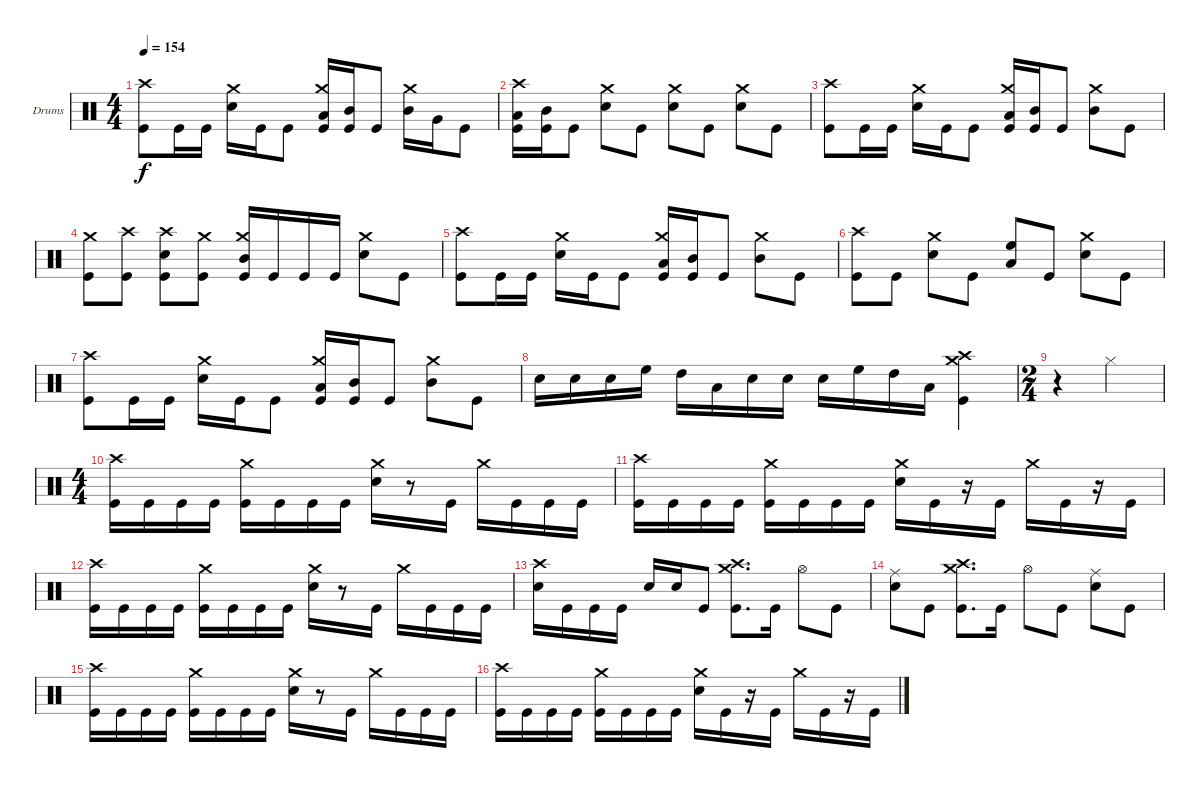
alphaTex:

\defaultSystemsLayout 4
\bracketExtendMode groupsimilarinstruments
\firstSystemTrackNameOrientation horizontal
\otherSystemsTrackNameOrientation horizontal
\track ("Moe Carlson" "Drums") {instrument percussion}
\staff {score}
\articulation defaults
\ts (4 4)
\tempo 154
\clef neutral
\ks c
("Crash high (hit)" "Kick (hit)").8{dy f} "Kick (hit)".16 "Kick (hit)".16 ("Snare (hit) 2" "Crash medium (hit)").16 "Kick (hit)".16 "Kick (hit)".8 ("Kick (hit)" "Crash medium (hit)" "Low Tom (hit)").16 ("Kick (hit)" "Mid Tom (hit)").16 "Kick (hit)".8 ("Crash medium (hit)" "Mid Tom (hit)").16 "Very Low Tom (hit)".16 "Kick (hit)".8 |
("Crash high (hit)" "Kick (hit)" "Low Tom (hit)").16 ("Kick (hit)" "Mid Tom (hit)").16 "Kick (hit)".8 ("Snare (hit) 2" "Crash medium (hit)").8 "Kick (hit)".8 ("Snare (hit) 2" "Crash medium (hit)").8 "Kick (hit)".8 ("Crash medium (hit)" "Snare (hit) 2").8 "Kick (hit)".8 |
("Crash high (hit)" "Kick (hit)").8 "Kick (hit)".16 "Kick (hit)".16 ("Snare (hit) 2" "Crash medium (hit)").16 "Kick (hit)".16 "Kick (hit)".8 ("Kick (hit)" "Crash medium (hit)" "Low Tom (hit)").16 ("Kick (hit)" "Mid Tom (hit)").16 "Kick (hit)".8 ("Crash medium (hit)" "Mid Tom (hit)").8 "Kick (hit)".8 |
("Kick (hit)" "Crash medium (hit)").8 ("Kick (hit)" "Crash high (hit)").8 ("Kick (hit)" "Crash high (hit)" "Snare (hit) 2").8 ("Kick (hit)" "Crash medium (hit)").8 ("Kick (hit)" "Crash medium (hit)" "Mid Tom (hit)").16 "Kick (hit)".16 "Kick (hit)".16 "Kick (hit)".16 ("Snare (hit) 2" "Crash medium (hit)").8 "Kick (hit)".8 |
("Crash high (hit)" "Kick (hit)").8 "Kick (hit)".16 "Kick (hit)".16 ("Snare (hit) 2" "Crash medium (hit)").16 "Kick (hit)".16 "Kick (hit)".8 ("Kick (hit)" "Crash medium (hit)" "Low Tom (hit)").16 ("Kick (hit)" "Mid Tom (hit)").16 "Kick (hit)".8 ("Crash medium (hit)" "Mid Tom (hit)").8 "Kick (hit)".8 |
("Crash high (hit)" "Kick (hit)").8 "Kick (hit)".8 ("Snare (hit) 2" "Crash medium (hit)").8 "Kick (hit)".8 ("Low Tom (hit)" "High Floor Tom (hit)").8 "Kick (hit)".8 ("Snare (hit) 2" "Crash medium (hit)").8 "Kick (hit)".8 |
("Crash high (hit)" "Kick (hit)").8 "Kick (hit)".16 "Kick (hit)".16 ("Snare (hit) 2" "Crash medium (hit)").16 "Kick (hit)".16 "Kick (hit)".8 ("Kick (hit)" "Crash medium (hit)" "Low Tom (hit)").16 ("Kick (hit)" "Mid Tom (hit)").16 "Kick (hit)".8 ("Crash medium (hit)" "Mid Tom (hit)").8 "Kick (hit)".8 |
"Snare (hit) 2".16 "Snare (hit) 2".16 "Snare (hit) 2".16 "High Floor Tom (hit)".16 "High Tom (hit)".16 "Low Tom (hit)".16 "Snare (hit) 2".16 "Snare (hit) 2".16 "Snare (hit) 2".16 "High Floor Tom (hit)".16 "High Tom (hit)".16 "Low Tom (hit)".16 ("Crash medium (hit)" "Crash high (hit)" "Kick (hit)").4 |
\ts (2 4)
r.4 "Hi-Hat (closed)".4 |
\ts (4 4)
("Crash high (hit)" "Kick (hit)").16 "Kick (hit)".16 "Kick (hit)".16 "Kick (hit)".16 ("Kick (hit)" "Crash medium (hit)").16 "Kick (hit)".16 "Kick (hit)".16 "Kick (hit)".16 ("Snare (hit) 2" "Crash medium (hit)").16 r.8 "Kick (hit)".16 "Crash medium (hit)".16 "Kick (hit)".16 "Kick (hit)".16 "Kick (hit)".16 |
("Kick (hit)" "Crash high (hit)").16 "Kick (hit)".16 "Kick (hit)".16 "Kick (hit)".16 ("Kick (hit)" "Crash medium (hit)").16 "Kick (hit)".16 "Kick (hit)".16 "Kick (hit)".16 ("Snare (hit) 2" "Crash medium (hit)").16 "Kick (hit)".16 r.16 "Kick (hit)".16 "Crash medium (hit)".16 "Kick (hit)".16 r.16 "Kick (hit)".16 |
("Crash high (hit)" "Kick (hit)").16 "Kick (hit)".16 "Kick (hit)".16 "Kick (hit)".16 ("Crash medium (hit)" "Kick (hit)").16 "Kick (hit)".16 "Kick (hit)".16 "Kick (hit)".16 ("Snare (hit) 2" "Crash medium (hit)").16 r.8 "Kick (hit)".16 "Crash medium (hit)".16 "Kick (hit)".16 "Kick (hit)".16 "Kick (hit)".16 |
("Snare (hit) 2" "Crash high (hit)").16 "Kick (hit)".16 "Kick (hit)".16 "Kick (hit)".16 "Snare (hit) 2".16 "Snare (hit) 2".16 "Kick (hit)".8 ("Kick (hit)" "Crash medium (hit)" "Crash high (hit)").8{d} "Kick (hit)".16 "Hi-Hat (open)".8 "Kick (hit)".8 |
("Snare (hit) 2" "Ride (middle)").8 "Kick (hit)".8 ("Kick (hit)" "Crash medium (hit)" "Crash high (hit)").8{d} "Kick (hit)".16 "Hi-Hat (open)".8 "Kick (hit)".8 ("Ride (middle)" "Snare (hit) 2").8 "Kick (hit)".8 |
("Crash high (hit)" "Kick (hit)").16 "Kick (hit)".16 "Kick (hit)".16 "Kick (hit)".16 ("Crash medium (hit)" "Kick (hit)").16 "Kick (hit)".16 "Kick (hit)".16 "Kick (hit)".16 ("Snare (hit) 2" "Crash medium (hit)").16 r.8 "Kick (hit)".16 "Crash medium (hit)".16 "Kick (hit)".16 "Kick (hit)".16 "Kick (hit)".16 |
("Kick (hit)" "Crash high (hit)").16 "Kick (hit)".16 "Kick (hit)".16 "Kick (hit)".16 ("Kick (hit)" "Crash medium (hit)").16 "Kick (hit)".16 "Kick (hit)".16 "Kick (hit)".16 ("Snare (hit) 2" "Crash medium (hit)").16 "Kick (hit)".16 r.16 "Kick (hit)".16 "Crash medium (hit)".16 "Kick (hit)".16 r.16 "Kick (hit)".16
